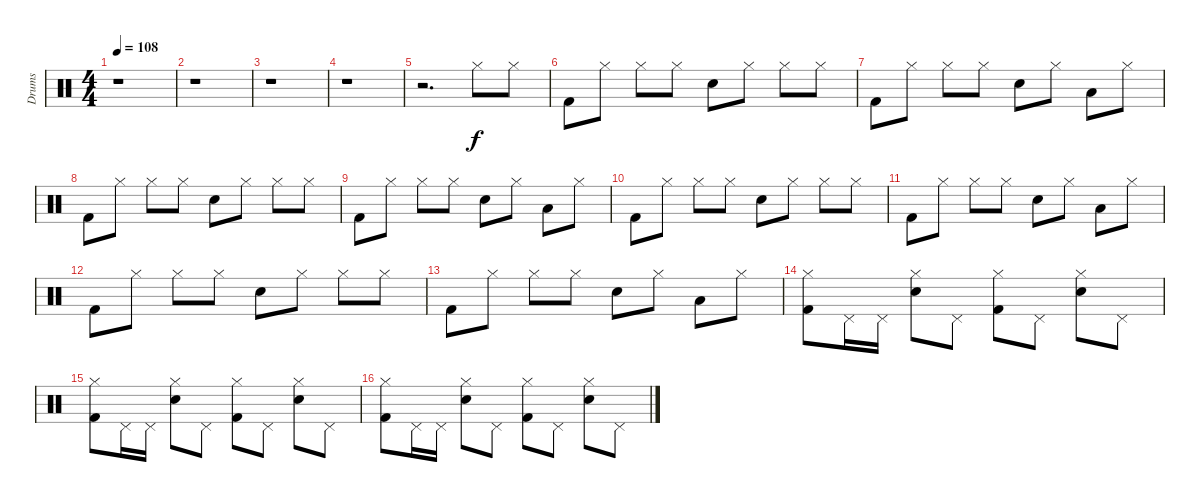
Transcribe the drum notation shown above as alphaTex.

\track ("Drums" "Drums") {instrument percussion}
\staff {score}
\articulation defaults
\ts (4 4)
\tempo 108
\clef neutral
\ks c
r.1{dy f} |
r.1 |
r.1 |
r.1 |
r.2{d} "Hi-Hat (closed)".8 "Hi-Hat (closed)".8 |
"Kick (hit) 2".8 "Hi-Hat (closed)".8 "Hi-Hat (closed)".8 "Hi-Hat (closed)".8 "Electric Snare (hit)".8 "Hi-Hat (closed)".8 "Hi-Hat (closed)".8 "Hi-Hat (closed)".8 |
"Kick (hit) 2".8 "Hi-Hat (closed)".8 "Hi-Hat (closed)".8 "Hi-Hat (closed)".8 "Electric Snare (hit)".8 "Hi-Hat (closed)".8 "Low Tom (hit)".8 "Hi-Hat (closed)".8 |
"Kick (hit) 2".8 "Hi-Hat (closed)".8 "Hi-Hat (closed)".8 "Hi-Hat (closed)".8 "Electric Snare (hit)".8 "Hi-Hat (closed)".8 "Hi-Hat (closed)".8 "Hi-Hat (closed)".8 |
"Kick (hit) 2".8 "Hi-Hat (closed)".8 "Hi-Hat (closed)".8 "Hi-Hat (closed)".8 "Electric Snare (hit)".8 "Hi-Hat (closed)".8 "Low Tom (hit)".8 "Hi-Hat (closed)".8 |
"Kick (hit) 2".8 "Hi-Hat (closed)".8 "Hi-Hat (closed)".8 "Hi-Hat (closed)".8 "Electric Snare (hit)".8 "Hi-Hat (closed)".8 "Hi-Hat (closed)".8 "Hi-Hat (closed)".8 |
"Kick (hit) 2".8 "Hi-Hat (closed)".8 "Hi-Hat (closed)".8 "Hi-Hat (closed)".8 "Electric Snare (hit)".8 "Hi-Hat (closed)".8 "Low Tom (hit)".8 "Hi-Hat (closed)".8 |
"Kick (hit) 2".8 "Hi-Hat (closed)".8 "Hi-Hat (closed)".8 "Hi-Hat (closed)".8 "Electric Snare (hit)".8 "Hi-Hat (closed)".8 "Hi-Hat (closed)".8 "Hi-Hat (closed)".8 |
"Kick (hit) 2".8 "Hi-Hat (closed)".8 "Hi-Hat (closed)".8 "Hi-Hat (closed)".8 "Electric Snare (hit)".8 "Hi-Hat (closed)".8 "Low Tom (hit)".8 "Hi-Hat (closed)".8 |
("Hi-Hat (closed)" "Kick (hit) 2").8 "Pedal Hi-Hat (hit)".16 "Pedal Hi-Hat (hit)".16 ("Hi-Hat (closed)" "Electric Snare (hit)").8 "Pedal Hi-Hat (hit)".8 ("Hi-Hat (closed)" "Kick (hit) 2").8 "Pedal Hi-Hat (hit)".8 ("Hi-Hat (closed)" "Electric Snare (hit)").8 "Pedal Hi-Hat (hit)".8 |
("Hi-Hat (closed)" "Kick (hit) 2").8 "Pedal Hi-Hat (hit)".16 "Pedal Hi-Hat (hit)".16 ("Hi-Hat (closed)" "Electric Snare (hit)").8 "Pedal Hi-Hat (hit)".8 ("Hi-Hat (closed)" "Kick (hit) 2").8 "Pedal Hi-Hat (hit)".8 ("Hi-Hat (closed)" "Electric Snare (hit)").8 "Pedal Hi-Hat (hit)".8 |
("Hi-Hat (closed)" "Kick (hit) 2").8 "Pedal Hi-Hat (hit)".16 "Pedal Hi-Hat (hit)".16 ("Hi-Hat (closed)" "Electric Snare (hit)").8 "Pedal Hi-Hat (hit)".8 ("Hi-Hat (closed)" "Kick (hit) 2").8 "Pedal Hi-Hat (hit)".8 ("Hi-Hat (closed)" "Electric Snare (hit)").8 "Pedal Hi-Hat (hit)".8
